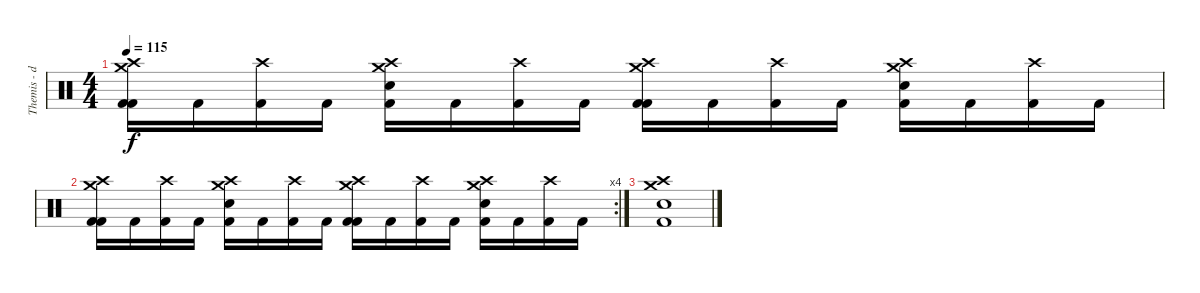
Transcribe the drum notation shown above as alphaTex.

\track ("Themis - drms" "Themis - d") {instrument percussion}
\staff {score}
\articulation defaults
\ts (4 4)
\tempo 115
\clef neutral
\ks c
("Crash high (hit)" "Crash medium (hit)" "Kick (hit) 2" "Kick (hit) 2").16{dy f} "Kick (hit) 2".16 ("Crash high (hit)" "Kick (hit) 2").16 "Kick (hit) 2".16 ("Crash high (hit)" "Crash medium (hit)" "Electric Snare (hit)" "Kick (hit) 2").16 "Kick (hit) 2".16 ("Crash high (hit)" "Kick (hit) 2").16 "Kick (hit) 2".16 ("Crash high (hit)" "Crash medium (hit)" "Kick (hit) 2" "Kick (hit) 2").16 "Kick (hit) 2".16 ("Crash high (hit)" "Kick (hit) 2").16 "Kick (hit) 2".16 ("Crash high (hit)" "Crash medium (hit)" "Electric Snare (hit)" "Kick (hit) 2").16 "Kick (hit) 2".16 ("Crash high (hit)" "Kick (hit) 2").16 "Kick (hit) 2".16 |
\rc 4
("Crash high (hit)" "Crash medium (hit)" "Kick (hit) 2" "Kick (hit) 2").16 "Kick (hit) 2".16 ("Crash high (hit)" "Kick (hit) 2").16 "Kick (hit) 2".16 ("Crash high (hit)" "Crash medium (hit)" "Electric Snare (hit)" "Kick (hit) 2").16 "Kick (hit) 2".16 ("Crash high (hit)" "Kick (hit) 2").16 "Kick (hit) 2".16 ("Crash high (hit)" "Crash medium (hit)" "Kick (hit) 2" "Kick (hit) 2").16 "Kick (hit) 2".16 ("Crash high (hit)" "Kick (hit) 2").16 "Kick (hit) 2".16 ("Crash high (hit)" "Crash medium (hit)" "Electric Snare (hit)" "Kick (hit) 2").16 "Kick (hit) 2".16 ("Crash high (hit)" "Kick (hit) 2").16 "Kick (hit) 2".16 |
("Crash high (hit)" "Crash medium (hit)" "Electric Snare (hit)" "Kick (hit) 2").1
